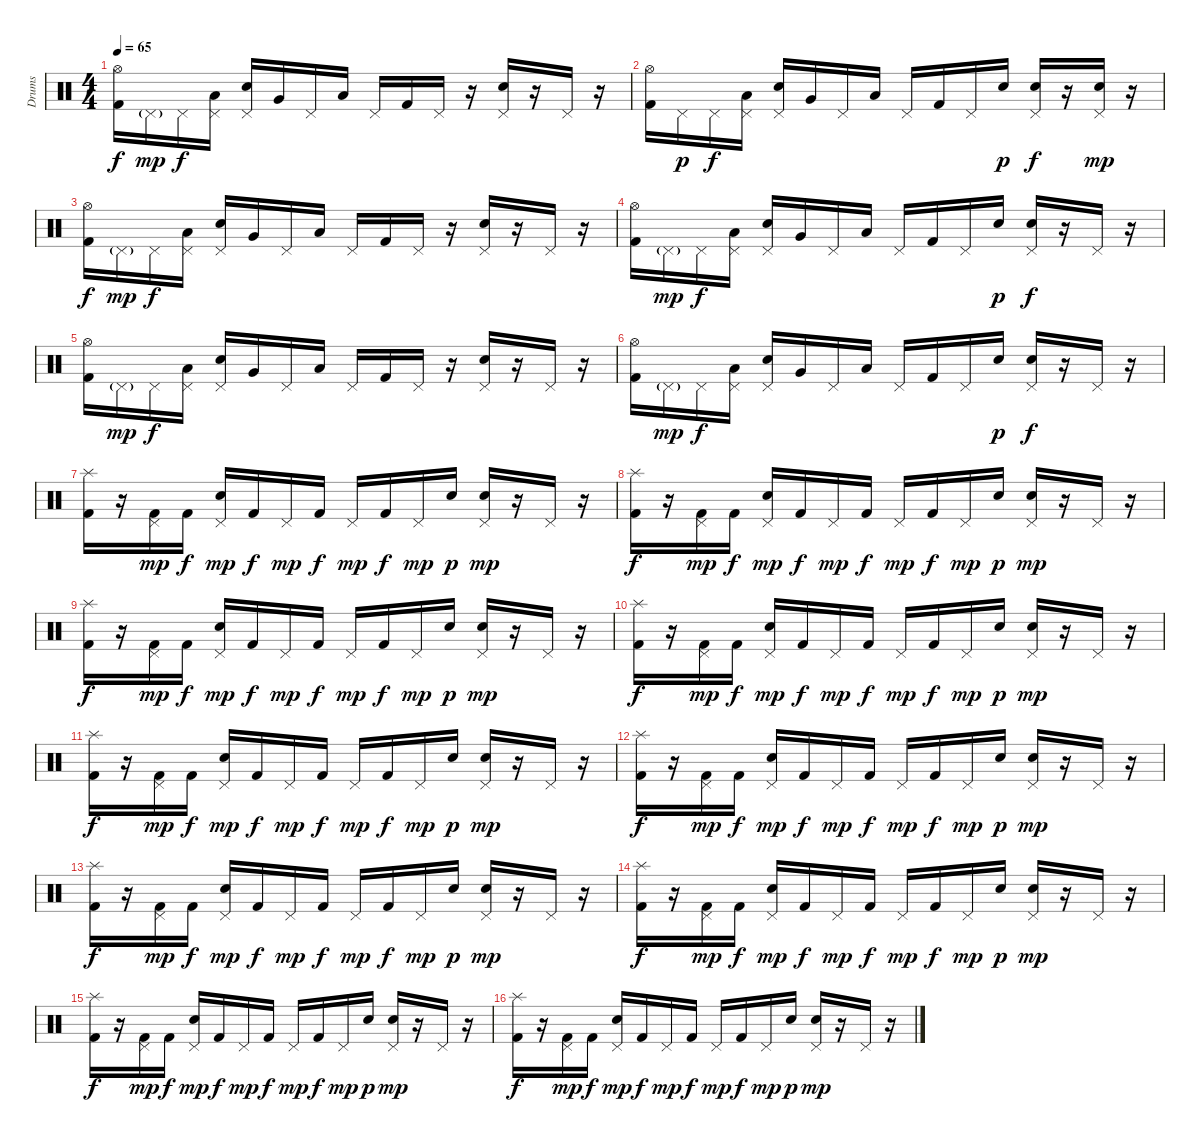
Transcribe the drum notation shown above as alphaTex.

\track ("Drums" "Drums") {instrument percussion}
\staff {score}
\articulation defaults
\ts (4 4)
\tempo 65
\clef neutral
\ks c
("Hi-Hat (open)" "Kick (hit) 2").16{dy f} "Pedal Hi-Hat (hit)"{g}.16{dy mp} "Pedal Hi-Hat (hit)".16{dy f} ("Pedal Hi-Hat (hit)" "Low Tom (hit)").16 ("Pedal Hi-Hat (hit)" "Snare (hit) 2").16 "Very Low Tom (hit)".16 "Pedal Hi-Hat (hit)".16 "Low Floor Tom (hit)".16 "Pedal Hi-Hat (hit)".16 "Kick (hit) 2".16 "Pedal Hi-Hat (hit)".16 r.16 ("Pedal Hi-Hat (hit)" "Snare (hit) 2").16 r.16 "Pedal Hi-Hat (hit)".16 r.16 |
("Hi-Hat (open)" "Kick (hit) 2").16 "Pedal Hi-Hat (hit)".16{dy p} "Pedal Hi-Hat (hit)".16{dy f} ("Pedal Hi-Hat (hit)" "Low Tom (hit)").16 ("Pedal Hi-Hat (hit)" "Snare (hit) 2").16 "Very Low Tom (hit)".16 "Pedal Hi-Hat (hit)".16 "Low Floor Tom (hit)".16 "Pedal Hi-Hat (hit)".16 "Kick (hit) 2".16 "Pedal Hi-Hat (hit)".16 "Snare (hit) 2".16{dy p} ("Pedal Hi-Hat (hit)" "Snare (hit) 2").16{dy f} r.16 ("Pedal Hi-Hat (hit)" "Snare (hit) 2").16{dy mp} r.16 |
("Hi-Hat (open)" "Kick (hit) 2").16{dy f} "Pedal Hi-Hat (hit)"{g}.16{dy mp} "Pedal Hi-Hat (hit)".16{dy f} ("Pedal Hi-Hat (hit)" "Low Tom (hit)").16 ("Pedal Hi-Hat (hit)" "Snare (hit) 2").16 "Very Low Tom (hit)".16 "Pedal Hi-Hat (hit)".16 "Low Floor Tom (hit)".16 "Pedal Hi-Hat (hit)".16 "Kick (hit) 2".16 "Pedal Hi-Hat (hit)".16 r.16 ("Pedal Hi-Hat (hit)" "Snare (hit) 2").16 r.16 "Pedal Hi-Hat (hit)".16 r.16 |
("Hi-Hat (open)" "Kick (hit) 2").16 "Pedal Hi-Hat (hit)"{g}.16{dy mp} "Pedal Hi-Hat (hit)".16{dy f} ("Pedal Hi-Hat (hit)" "Low Tom (hit)").16 ("Pedal Hi-Hat (hit)" "Snare (hit) 2").16 "Very Low Tom (hit)".16 "Pedal Hi-Hat (hit)".16 "Low Floor Tom (hit)".16 "Pedal Hi-Hat (hit)".16 "Kick (hit) 2".16 "Pedal Hi-Hat (hit)".16 "Snare (hit) 2".16{dy p} ("Pedal Hi-Hat (hit)" "Snare (hit) 2").16{dy f} r.16 "Pedal Hi-Hat (hit)".16 r.16 |
("Hi-Hat (open)" "Kick (hit) 2").16 "Pedal Hi-Hat (hit)"{g}.16{dy mp} "Pedal Hi-Hat (hit)".16{dy f} ("Pedal Hi-Hat (hit)" "Low Tom (hit)").16 ("Pedal Hi-Hat (hit)" "Snare (hit) 2").16 "Very Low Tom (hit)".16 "Pedal Hi-Hat (hit)".16 "Low Floor Tom (hit)".16 "Pedal Hi-Hat (hit)".16 "Kick (hit) 2".16 "Pedal Hi-Hat (hit)".16 r.16 ("Pedal Hi-Hat (hit)" "Snare (hit) 2").16 r.16 "Pedal Hi-Hat (hit)".16 r.16 |
("Hi-Hat (open)" "Kick (hit) 2").16 "Pedal Hi-Hat (hit)"{g}.16{dy mp} "Pedal Hi-Hat (hit)".16{dy f} ("Pedal Hi-Hat (hit)" "Low Tom (hit)").16 ("Pedal Hi-Hat (hit)" "Snare (hit) 2").16 "Very Low Tom (hit)".16 "Pedal Hi-Hat (hit)".16 "Low Floor Tom (hit)".16 "Pedal Hi-Hat (hit)".16 "Kick (hit) 2".16 "Pedal Hi-Hat (hit)".16 "Snare (hit) 2".16{dy p} ("Pedal Hi-Hat (hit)" "Snare (hit) 2").16{dy f} r.16 "Pedal Hi-Hat (hit)".16 r.16 |
("Splash (hit)" "Kick (hit) 2").16 r.16 ("Pedal Hi-Hat (hit)" "Kick (hit) 2").16{dy mp} "Kick (hit) 2".16{dy f} ("Pedal Hi-Hat (hit)" "Snare (hit) 2").16{dy mp} "Kick (hit) 2".16{dy f} "Pedal Hi-Hat (hit)".16{dy mp} "Kick (hit) 2".16{dy f} "Pedal Hi-Hat (hit)".16{dy mp} "Kick (hit) 2".16{dy f} "Pedal Hi-Hat (hit)".16{dy mp} "Snare (hit) 2".16{dy p} ("Pedal Hi-Hat (hit)" "Snare (hit) 2").16{dy mp} r.16 "Pedal Hi-Hat (hit)".16 r.16 |
("Splash (hit)" "Kick (hit) 2").16{dy f} r.16 ("Pedal Hi-Hat (hit)" "Kick (hit) 2").16{dy mp} "Kick (hit) 2".16{dy f} ("Pedal Hi-Hat (hit)" "Snare (hit) 2").16{dy mp} "Kick (hit) 2".16{dy f} "Pedal Hi-Hat (hit)".16{dy mp} "Kick (hit) 2".16{dy f} "Pedal Hi-Hat (hit)".16{dy mp} "Kick (hit) 2".16{dy f} "Pedal Hi-Hat (hit)".16{dy mp} "Snare (hit) 2".16{dy p} ("Pedal Hi-Hat (hit)" "Snare (hit) 2").16{dy mp} r.16 "Pedal Hi-Hat (hit)".16 r.16 |
("Splash (hit)" "Kick (hit) 2").16{dy f} r.16 ("Pedal Hi-Hat (hit)" "Kick (hit) 2").16{dy mp} "Kick (hit) 2".16{dy f} ("Pedal Hi-Hat (hit)" "Snare (hit) 2").16{dy mp} "Kick (hit) 2".16{dy f} "Pedal Hi-Hat (hit)".16{dy mp} "Kick (hit) 2".16{dy f} "Pedal Hi-Hat (hit)".16{dy mp} "Kick (hit) 2".16{dy f} "Pedal Hi-Hat (hit)".16{dy mp} "Snare (hit) 2".16{dy p} ("Pedal Hi-Hat (hit)" "Snare (hit) 2").16{dy mp} r.16 "Pedal Hi-Hat (hit)".16 r.16 |
("Splash (hit)" "Kick (hit) 2").16{dy f} r.16 ("Pedal Hi-Hat (hit)" "Kick (hit) 2").16{dy mp} "Kick (hit) 2".16{dy f} ("Pedal Hi-Hat (hit)" "Snare (hit) 2").16{dy mp} "Kick (hit) 2".16{dy f} "Pedal Hi-Hat (hit)".16{dy mp} "Kick (hit) 2".16{dy f} "Pedal Hi-Hat (hit)".16{dy mp} "Kick (hit) 2".16{dy f} "Pedal Hi-Hat (hit)".16{dy mp} "Snare (hit) 2".16{dy p} ("Pedal Hi-Hat (hit)" "Snare (hit) 2").16{dy mp} r.16 "Pedal Hi-Hat (hit)".16 r.16 |
("Splash (hit)" "Kick (hit) 2").16{dy f} r.16 ("Pedal Hi-Hat (hit)" "Kick (hit) 2").16{dy mp} "Kick (hit) 2".16{dy f} ("Pedal Hi-Hat (hit)" "Snare (hit) 2").16{dy mp} "Kick (hit) 2".16{dy f} "Pedal Hi-Hat (hit)".16{dy mp} "Kick (hit) 2".16{dy f} "Pedal Hi-Hat (hit)".16{dy mp} "Kick (hit) 2".16{dy f} "Pedal Hi-Hat (hit)".16{dy mp} "Snare (hit) 2".16{dy p} ("Pedal Hi-Hat (hit)" "Snare (hit) 2").16{dy mp} r.16 "Pedal Hi-Hat (hit)".16 r.16 |
("Splash (hit)" "Kick (hit) 2").16{dy f} r.16 ("Pedal Hi-Hat (hit)" "Kick (hit) 2").16{dy mp} "Kick (hit) 2".16{dy f} ("Pedal Hi-Hat (hit)" "Snare (hit) 2").16{dy mp} "Kick (hit) 2".16{dy f} "Pedal Hi-Hat (hit)".16{dy mp} "Kick (hit) 2".16{dy f} "Pedal Hi-Hat (hit)".16{dy mp} "Kick (hit) 2".16{dy f} "Pedal Hi-Hat (hit)".16{dy mp} "Snare (hit) 2".16{dy p} ("Pedal Hi-Hat (hit)" "Snare (hit) 2").16{dy mp} r.16 "Pedal Hi-Hat (hit)".16 r.16 |
("Splash (hit)" "Kick (hit) 2").16{dy f} r.16 ("Pedal Hi-Hat (hit)" "Kick (hit) 2").16{dy mp} "Kick (hit) 2".16{dy f} ("Pedal Hi-Hat (hit)" "Snare (hit) 2").16{dy mp} "Kick (hit) 2".16{dy f} "Pedal Hi-Hat (hit)".16{dy mp} "Kick (hit) 2".16{dy f} "Pedal Hi-Hat (hit)".16{dy mp} "Kick (hit) 2".16{dy f} "Pedal Hi-Hat (hit)".16{dy mp} "Snare (hit) 2".16{dy p} ("Pedal Hi-Hat (hit)" "Snare (hit) 2").16{dy mp} r.16 "Pedal Hi-Hat (hit)".16 r.16 |
("Splash (hit)" "Kick (hit) 2").16{dy f} r.16 ("Pedal Hi-Hat (hit)" "Kick (hit) 2").16{dy mp} "Kick (hit) 2".16{dy f} ("Pedal Hi-Hat (hit)" "Snare (hit) 2").16{dy mp} "Kick (hit) 2".16{dy f} "Pedal Hi-Hat (hit)".16{dy mp} "Kick (hit) 2".16{dy f} "Pedal Hi-Hat (hit)".16{dy mp} "Kick (hit) 2".16{dy f} "Pedal Hi-Hat (hit)".16{dy mp} "Snare (hit) 2".16{dy p} ("Pedal Hi-Hat (hit)" "Snare (hit) 2").16{dy mp} r.16 "Pedal Hi-Hat (hit)".16 r.16 |
("Splash (hit)" "Kick (hit) 2").16{dy f} r.16 ("Pedal Hi-Hat (hit)" "Kick (hit) 2").16{dy mp} "Kick (hit) 2".16{dy f} ("Pedal Hi-Hat (hit)" "Snare (hit) 2").16{dy mp} "Kick (hit) 2".16{dy f} "Pedal Hi-Hat (hit)".16{dy mp} "Kick (hit) 2".16{dy f} "Pedal Hi-Hat (hit)".16{dy mp} "Kick (hit) 2".16{dy f} "Pedal Hi-Hat (hit)".16{dy mp} "Snare (hit) 2".16{dy p} ("Pedal Hi-Hat (hit)" "Snare (hit) 2").16{dy mp} r.16 "Pedal Hi-Hat (hit)".16 r.16 |
("Splash (hit)" "Kick (hit) 2").16{dy f} r.16 ("Pedal Hi-Hat (hit)" "Kick (hit) 2").16{dy mp} "Kick (hit) 2".16{dy f} ("Pedal Hi-Hat (hit)" "Snare (hit) 2").16{dy mp} "Kick (hit) 2".16{dy f} "Pedal Hi-Hat (hit)".16{dy mp} "Kick (hit) 2".16{dy f} "Pedal Hi-Hat (hit)".16{dy mp} "Kick (hit) 2".16{dy f} "Pedal Hi-Hat (hit)".16{dy mp} "Snare (hit) 2".16{dy p} ("Pedal Hi-Hat (hit)" "Snare (hit) 2").16{dy mp} r.16 "Pedal Hi-Hat (hit)".16 r.16
